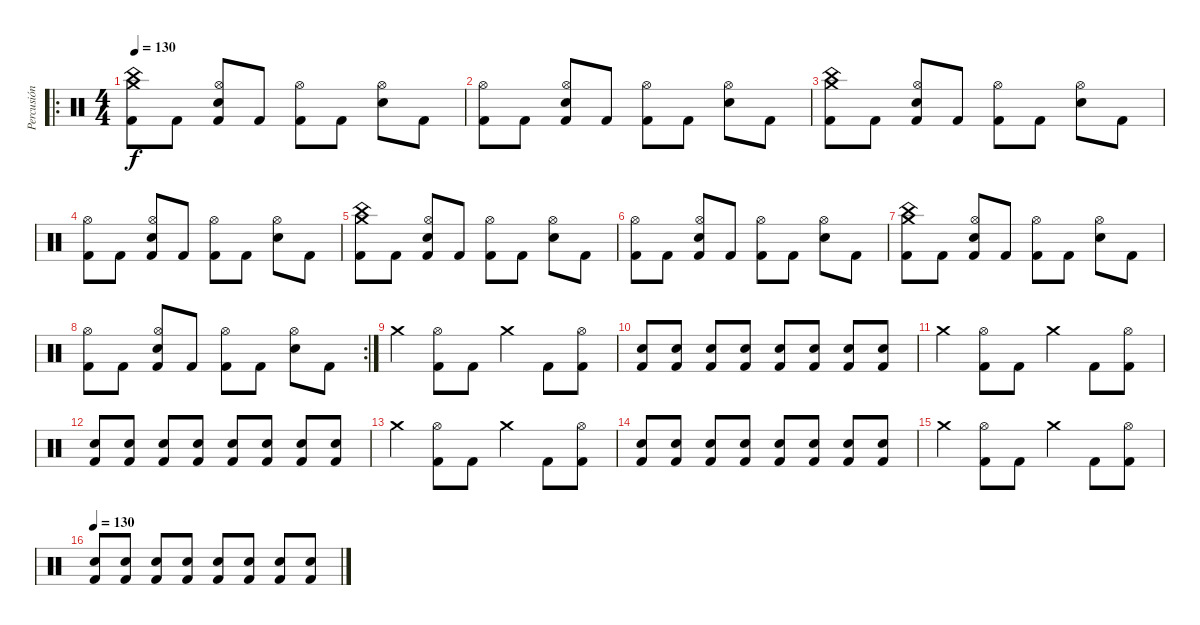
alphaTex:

\track ("Percusión" "Percusión") {instrument percussion}
\staff {score}
\articulation defaults
\ro
\ts (4 4)
\tempo 130
\clef neutral
\ks c
("China (hit)" "Crash medium (hit)" "Kick (hit) 2").8{dy f} "Kick (hit) 2".8 ("Hi-Hat (open)" "Snare (hit) 2" "Kick (hit) 2").8 "Kick (hit) 2".8 ("Hi-Hat (open)" "Kick (hit) 2").8 "Kick (hit) 2".8 ("Hi-Hat (open)" "Snare (hit) 2").8 "Kick (hit) 2".8 |
("Hi-Hat (open)" "Kick (hit) 2").8 "Kick (hit) 2".8 ("Hi-Hat (open)" "Snare (hit) 2" "Kick (hit) 2").8 "Kick (hit) 2".8 ("Hi-Hat (open)" "Kick (hit) 2").8 "Kick (hit) 2".8 ("Hi-Hat (open)" "Snare (hit) 2").8 "Kick (hit) 2".8 |
("China (hit)" "Crash medium (hit)" "Kick (hit) 2").8 "Kick (hit) 2".8 ("Hi-Hat (open)" "Snare (hit) 2" "Kick (hit) 2").8 "Kick (hit) 2".8 ("Hi-Hat (open)" "Kick (hit) 2").8 "Kick (hit) 2".8 ("Hi-Hat (open)" "Snare (hit) 2").8 "Kick (hit) 2".8 |
("Hi-Hat (open)" "Kick (hit) 2").8 "Kick (hit) 2".8 ("Hi-Hat (open)" "Snare (hit) 2" "Kick (hit) 2").8 "Kick (hit) 2".8 ("Hi-Hat (open)" "Kick (hit) 2").8 "Kick (hit) 2".8 ("Hi-Hat (open)" "Snare (hit) 2").8 "Kick (hit) 2".8 |
("China (hit)" "Crash medium (hit)" "Kick (hit) 2").8 "Kick (hit) 2".8 ("Hi-Hat (open)" "Snare (hit) 2" "Kick (hit) 2").8 "Kick (hit) 2".8 ("Hi-Hat (open)" "Kick (hit) 2").8 "Kick (hit) 2".8 ("Hi-Hat (open)" "Snare (hit) 2").8 "Kick (hit) 2".8 |
("Hi-Hat (open)" "Kick (hit) 2").8 "Kick (hit) 2".8 ("Hi-Hat (open)" "Snare (hit) 2" "Kick (hit) 2").8 "Kick (hit) 2".8 ("Hi-Hat (open)" "Kick (hit) 2").8 "Kick (hit) 2".8 ("Hi-Hat (open)" "Snare (hit) 2").8 "Kick (hit) 2".8 |
("China (hit)" "Crash medium (hit)" "Kick (hit) 2").8 "Kick (hit) 2".8 ("Hi-Hat (open)" "Snare (hit) 2" "Kick (hit) 2").8 "Kick (hit) 2".8 ("Hi-Hat (open)" "Kick (hit) 2").8 "Kick (hit) 2".8 ("Hi-Hat (open)" "Snare (hit) 2").8 "Kick (hit) 2".8 |
\rc 2
("Hi-Hat (open)" "Kick (hit) 2").8 "Kick (hit) 2".8 ("Hi-Hat (open)" "Snare (hit) 2" "Kick (hit) 2").8 "Kick (hit) 2".8 ("Hi-Hat (open)" "Kick (hit) 2").8 "Kick (hit) 2".8 ("Hi-Hat (open)" "Snare (hit) 2").8 "Kick (hit) 2".8 |
"Crash medium (hit)".4 ("Hi-Hat (open)" "Kick (hit) 2").8 "Kick (hit) 2".8 "Crash medium (hit)".4 "Kick (hit) 2".8 ("Hi-Hat (open)" "Kick (hit) 2").8 |
("Snare (hit) 2" "Kick (hit) 2").8 ("Snare (hit) 2" "Kick (hit) 2").8 ("Snare (hit) 2" "Kick (hit) 2").8 ("Snare (hit) 2" "Kick (hit) 2").8 ("Snare (hit) 2" "Kick (hit) 2").8 ("Snare (hit) 2" "Kick (hit) 2").8 ("Snare (hit) 2" "Kick (hit) 2").8 ("Snare (hit) 2" "Kick (hit) 2").8 |
"Crash medium (hit)".4 ("Hi-Hat (open)" "Kick (hit) 2").8 "Kick (hit) 2".8 "Crash medium (hit)".4 "Kick (hit) 2".8 ("Hi-Hat (open)" "Kick (hit) 2").8 |
("Snare (hit) 2" "Kick (hit) 2").8 ("Snare (hit) 2" "Kick (hit) 2").8 ("Snare (hit) 2" "Kick (hit) 2").8 ("Snare (hit) 2" "Kick (hit) 2").8 ("Snare (hit) 2" "Kick (hit) 2").8 ("Snare (hit) 2" "Kick (hit) 2").8 ("Snare (hit) 2" "Kick (hit) 2").8 ("Snare (hit) 2" "Kick (hit) 2").8 |
"Crash medium (hit)".4 ("Hi-Hat (open)" "Kick (hit) 2").8 "Kick (hit) 2".8 "Crash medium (hit)".4 "Kick (hit) 2".8 ("Hi-Hat (open)" "Kick (hit) 2").8 |
("Snare (hit) 2" "Kick (hit) 2").8 ("Snare (hit) 2" "Kick (hit) 2").8 ("Snare (hit) 2" "Kick (hit) 2").8 ("Snare (hit) 2" "Kick (hit) 2").8 ("Snare (hit) 2" "Kick (hit) 2").8 ("Snare (hit) 2" "Kick (hit) 2").8 ("Snare (hit) 2" "Kick (hit) 2").8 ("Snare (hit) 2" "Kick (hit) 2").8 |
"Crash medium (hit)".4 ("Hi-Hat (open)" "Kick (hit) 2").8 "Kick (hit) 2".8 "Crash medium (hit)".4 "Kick (hit) 2".8 ("Hi-Hat (open)" "Kick (hit) 2").8 |
\tempo 130
("Snare (hit) 2" "Kick (hit) 2").8 ("Snare (hit) 2" "Kick (hit) 2").8 ("Snare (hit) 2" "Kick (hit) 2").8 ("Snare (hit) 2" "Kick (hit) 2").8 ("Snare (hit) 2" "Kick (hit) 2").8 ("Snare (hit) 2" "Kick (hit) 2").8 ("Snare (hit) 2" "Kick (hit) 2").8 ("Snare (hit) 2" "Kick (hit) 2").8
